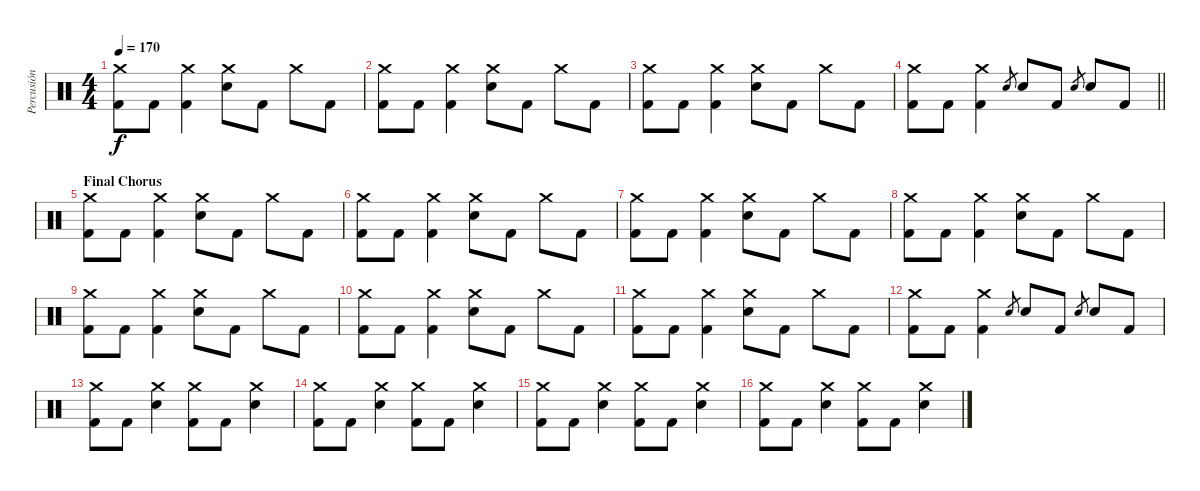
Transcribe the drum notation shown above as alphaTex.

\track ("Percusión" "Percusión") {instrument percussion}
\staff {score}
\articulation defaults
\ts (4 4)
\tempo 170
\clef neutral
\ks c
("Crash medium (hit)" "Kick (hit) 2").8{dy f} "Kick (hit) 2".8 ("Crash medium (hit)" "Kick (hit) 2").4 ("Crash medium (hit)" "Electric Snare (hit)").8 "Kick (hit) 2".8 "Crash medium (hit)".8 "Kick (hit) 2".8 |
("Crash medium (hit)" "Kick (hit) 2").8 "Kick (hit) 2".8 ("Crash medium (hit)" "Kick (hit) 2").4 ("Crash medium (hit)" "Electric Snare (hit)").8 "Kick (hit) 2".8 "Crash medium (hit)".8 "Kick (hit) 2".8 |
("Crash medium (hit)" "Kick (hit) 2").8 "Kick (hit) 2".8 ("Crash medium (hit)" "Kick (hit) 2").4 ("Crash medium (hit)" "Electric Snare (hit)").8 "Kick (hit) 2".8 "Crash medium (hit)".8 "Kick (hit) 2".8 |
\barLineRight lightlight
("Crash medium (hit)" "Kick (hit) 2").8 "Kick (hit) 2".8 ("Crash medium (hit)" "Kick (hit) 2").4 "Electric Snare (hit)".8{gr} "Electric Snare (hit)".8 "Kick (hit) 2".8 "Electric Snare (hit)".8{gr} "Electric Snare (hit)".8 "Kick (hit) 2".8 |
\section ("" "Final Chorus")
("Crash medium (hit)" "Kick (hit) 2").8 "Kick (hit) 2".8 ("Crash medium (hit)" "Kick (hit) 2").4 ("Crash medium (hit)" "Electric Snare (hit)").8 "Kick (hit) 2".8 "Crash medium (hit)".8 "Kick (hit) 2".8 |
("Crash medium (hit)" "Kick (hit) 2").8 "Kick (hit) 2".8 ("Crash medium (hit)" "Kick (hit) 2").4 ("Crash medium (hit)" "Electric Snare (hit)").8 "Kick (hit) 2".8 "Crash medium (hit)".8 "Kick (hit) 2".8 |
("Crash medium (hit)" "Kick (hit) 2").8 "Kick (hit) 2".8 ("Crash medium (hit)" "Kick (hit) 2").4 ("Crash medium (hit)" "Electric Snare (hit)").8 "Kick (hit) 2".8 "Crash medium (hit)".8 "Kick (hit) 2".8 |
("Crash medium (hit)" "Kick (hit) 2").8 "Kick (hit) 2".8 ("Crash medium (hit)" "Kick (hit) 2").4 ("Crash medium (hit)" "Electric Snare (hit)").8 "Kick (hit) 2".8 "Crash medium (hit)".8 "Kick (hit) 2".8 |
("Crash medium (hit)" "Kick (hit) 2").8 "Kick (hit) 2".8 ("Crash medium (hit)" "Kick (hit) 2").4 ("Crash medium (hit)" "Electric Snare (hit)").8 "Kick (hit) 2".8 "Crash medium (hit)".8 "Kick (hit) 2".8 |
("Crash medium (hit)" "Kick (hit) 2").8 "Kick (hit) 2".8 ("Crash medium (hit)" "Kick (hit) 2").4 ("Crash medium (hit)" "Electric Snare (hit)").8 "Kick (hit) 2".8 "Crash medium (hit)".8 "Kick (hit) 2".8 |
("Crash medium (hit)" "Kick (hit) 2").8 "Kick (hit) 2".8 ("Crash medium (hit)" "Kick (hit) 2").4 ("Crash medium (hit)" "Electric Snare (hit)").8 "Kick (hit) 2".8 "Crash medium (hit)".8 "Kick (hit) 2".8 |
("Crash medium (hit)" "Kick (hit) 2").8 "Kick (hit) 2".8 ("Crash medium (hit)" "Kick (hit) 2").4 "Electric Snare (hit)".8{gr} "Electric Snare (hit)".8 "Kick (hit) 2".8 "Electric Snare (hit)".8{gr} "Electric Snare (hit)".8 "Kick (hit) 2".8 |
("Crash medium (hit)" "Kick (hit) 2").8 "Kick (hit) 2".8 ("Crash medium (hit)" "Electric Snare (hit)").4 ("Crash medium (hit)" "Kick (hit) 2").8 "Kick (hit) 2".8 ("Crash medium (hit)" "Electric Snare (hit)").4 |
("Crash medium (hit)" "Kick (hit) 2").8 "Kick (hit) 2".8 ("Crash medium (hit)" "Electric Snare (hit)").4 ("Crash medium (hit)" "Kick (hit) 2").8 "Kick (hit) 2".8 ("Crash medium (hit)" "Electric Snare (hit)").4 |
("Crash medium (hit)" "Kick (hit) 2").8 "Kick (hit) 2".8 ("Crash medium (hit)" "Electric Snare (hit)").4 ("Crash medium (hit)" "Kick (hit) 2").8 "Kick (hit) 2".8 ("Crash medium (hit)" "Electric Snare (hit)").4 |
("Crash medium (hit)" "Kick (hit) 2").8 "Kick (hit) 2".8 ("Crash medium (hit)" "Electric Snare (hit)").4 ("Crash medium (hit)" "Kick (hit) 2").8 "Kick (hit) 2".8 ("Crash medium (hit)" "Electric Snare (hit)").4
